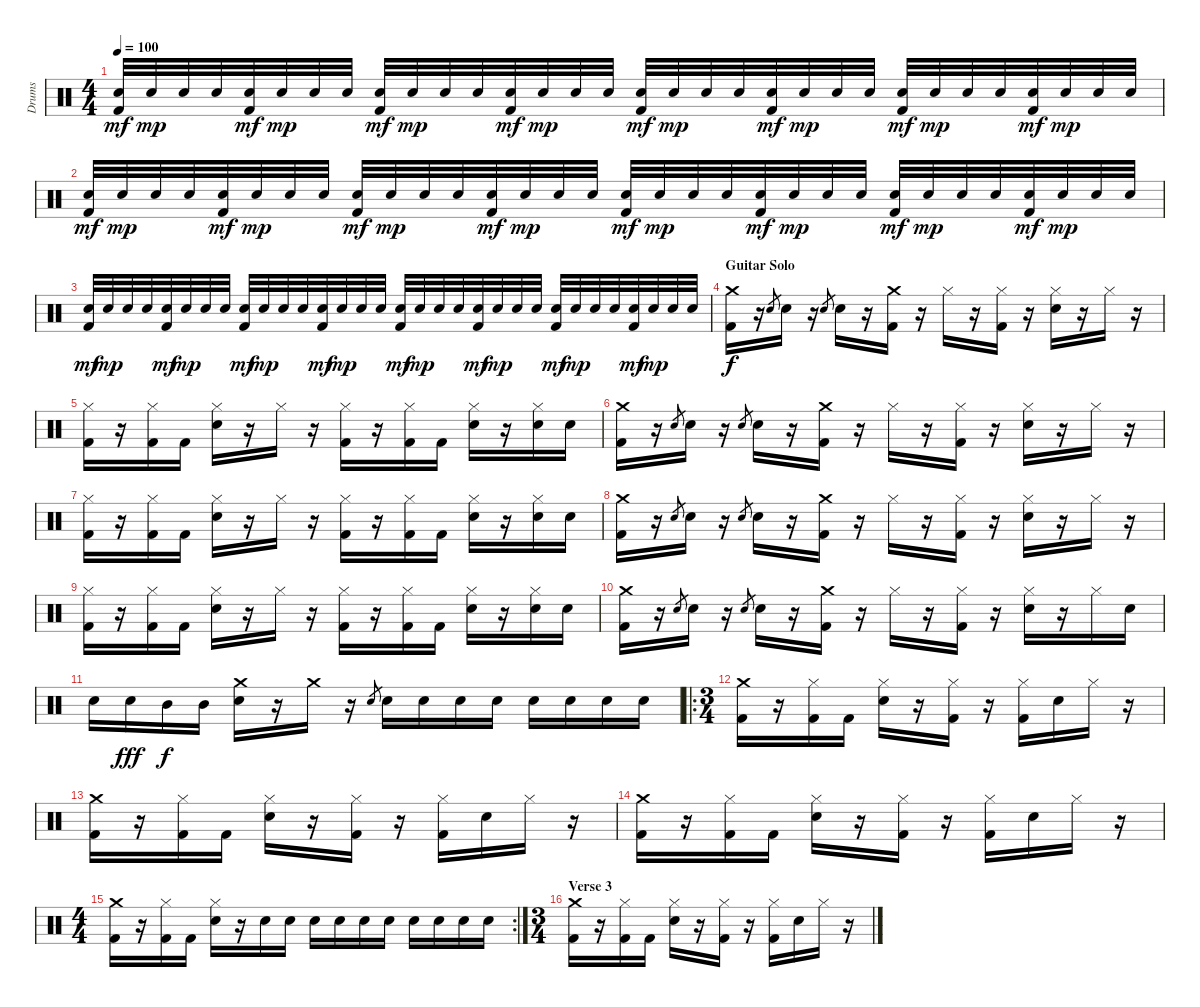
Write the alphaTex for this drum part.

\track ("Drums" "Drums") {instrument percussion}
\staff {score}
\articulation defaults
\ts (4 4)
\tempo 100
\clef neutral
\ks c
("Snare (hit) 2" "Kick (hit) 2").32{dy mf} "Snare (hit) 2".32{dy mp} "Snare (hit) 2".32 "Snare (hit) 2".32 ("Snare (hit) 2" "Kick (hit) 2").32{dy mf} "Snare (hit) 2".32{dy mp} "Snare (hit) 2".32 "Snare (hit) 2".32 ("Snare (hit) 2" "Kick (hit) 2").32{dy mf} "Snare (hit) 2".32{dy mp} "Snare (hit) 2".32 "Snare (hit) 2".32 ("Snare (hit) 2" "Kick (hit) 2").32{dy mf} "Snare (hit) 2".32{dy mp} "Snare (hit) 2".32 "Snare (hit) 2".32 ("Snare (hit) 2" "Kick (hit) 2").32{dy mf} "Snare (hit) 2".32{dy mp} "Snare (hit) 2".32 "Snare (hit) 2".32 ("Snare (hit) 2" "Kick (hit) 2").32{dy mf} "Snare (hit) 2".32{dy mp} "Snare (hit) 2".32 "Snare (hit) 2".32 ("Snare (hit) 2" "Kick (hit) 2").32{dy mf} "Snare (hit) 2".32{dy mp} "Snare (hit) 2".32 "Snare (hit) 2".32 ("Snare (hit) 2" "Kick (hit) 2").32{dy mf} "Snare (hit) 2".32{dy mp} "Snare (hit) 2".32 "Snare (hit) 2".32 |
("Snare (hit) 2" "Kick (hit) 2").32{dy mf} "Snare (hit) 2".32{dy mp} "Snare (hit) 2".32 "Snare (hit) 2".32 ("Snare (hit) 2" "Kick (hit) 2").32{dy mf} "Snare (hit) 2".32{dy mp} "Snare (hit) 2".32 "Snare (hit) 2".32 ("Snare (hit) 2" "Kick (hit) 2").32{dy mf} "Snare (hit) 2".32{dy mp} "Snare (hit) 2".32 "Snare (hit) 2".32 ("Snare (hit) 2" "Kick (hit) 2").32{dy mf} "Snare (hit) 2".32{dy mp} "Snare (hit) 2".32 "Snare (hit) 2".32 ("Snare (hit) 2" "Kick (hit) 2").32{dy mf} "Snare (hit) 2".32{dy mp} "Snare (hit) 2".32 "Snare (hit) 2".32 ("Snare (hit) 2" "Kick (hit) 2").32{dy mf} "Snare (hit) 2".32{dy mp} "Snare (hit) 2".32 "Snare (hit) 2".32 ("Snare (hit) 2" "Kick (hit) 2").32{dy mf} "Snare (hit) 2".32{dy mp} "Snare (hit) 2".32 "Snare (hit) 2".32 ("Snare (hit) 2" "Kick (hit) 2").32{dy mf} "Snare (hit) 2".32{dy mp} "Snare (hit) 2".32 "Snare (hit) 2".32 |
("Snare (hit) 2" "Kick (hit) 2").32{dy mf} "Snare (hit) 2".32{dy mp} "Snare (hit) 2".32 "Snare (hit) 2".32 ("Snare (hit) 2" "Kick (hit) 2").32{dy mf} "Snare (hit) 2".32{dy mp} "Snare (hit) 2".32 "Snare (hit) 2".32 ("Snare (hit) 2" "Kick (hit) 2").32{dy mf} "Snare (hit) 2".32{dy mp} "Snare (hit) 2".32 "Snare (hit) 2".32 ("Snare (hit) 2" "Kick (hit) 2").32{dy mf} "Snare (hit) 2".32{dy mp} "Snare (hit) 2".32 "Snare (hit) 2".32 ("Snare (hit) 2" "Kick (hit) 2").32{dy mf} "Snare (hit) 2".32{dy mp} "Snare (hit) 2".32 "Snare (hit) 2".32 ("Snare (hit) 2" "Kick (hit) 2").32{dy mf} "Snare (hit) 2".32{dy mp} "Snare (hit) 2".32 "Snare (hit) 2".32 ("Snare (hit) 2" "Kick (hit) 2").32{dy mf} "Snare (hit) 2".32{dy mp} "Snare (hit) 2".32 "Snare (hit) 2".32 ("Snare (hit) 2" "Kick (hit) 2").32{dy mf} "Snare (hit) 2".32{dy mp} "Snare (hit) 2".32 "Snare (hit) 2".32 |
\section ("" "Guitar Solo")
("Crash medium (hit)" "Kick (hit) 2").16{dy f} r.16 "Snare (hit) 2".8{gr} "Snare (hit) 2".16 r.16 "Snare (hit) 2".8{gr} "Snare (hit) 2".16 r.16 ("Crash medium (hit)" "Kick (hit) 2").16 r.16 "Hi-Hat (closed)".16 r.16 ("Hi-Hat (closed)" "Kick (hit) 2").16 r.16 ("Hi-Hat (closed)" "Snare (hit) 2").16 r.16 "Hi-Hat (closed)".16 r.16 |
("Hi-Hat (closed)" "Kick (hit) 2").16 r.16 ("Hi-Hat (closed)" "Kick (hit) 2").16 "Kick (hit) 2".16 ("Hi-Hat (closed)" "Snare (hit) 2").16 r.16 "Hi-Hat (closed)".16 r.16 ("Hi-Hat (closed)" "Kick (hit) 2").16 r.16 ("Hi-Hat (closed)" "Kick (hit) 2").16 "Kick (hit) 2".16 ("Hi-Hat (closed)" "Snare (hit) 2").16 r.16 ("Hi-Hat (closed)" "Snare (hit) 2").16 "Snare (hit) 2".16 |
("Crash medium (hit)" "Kick (hit) 2").16 r.16 "Snare (hit) 2".8{gr} "Snare (hit) 2".16 r.16 "Snare (hit) 2".8{gr} "Snare (hit) 2".16 r.16 ("Crash medium (hit)" "Kick (hit) 2").16 r.16 "Hi-Hat (closed)".16 r.16 ("Hi-Hat (closed)" "Kick (hit) 2").16 r.16 ("Hi-Hat (closed)" "Snare (hit) 2").16 r.16 "Hi-Hat (closed)".16 r.16 |
("Hi-Hat (closed)" "Kick (hit) 2").16 r.16 ("Hi-Hat (closed)" "Kick (hit) 2").16 "Kick (hit) 2".16 ("Hi-Hat (closed)" "Snare (hit) 2").16 r.16 "Hi-Hat (closed)".16 r.16 ("Hi-Hat (closed)" "Kick (hit) 2").16 r.16 ("Hi-Hat (closed)" "Kick (hit) 2").16 "Kick (hit) 2".16 ("Hi-Hat (closed)" "Snare (hit) 2").16 r.16 ("Hi-Hat (closed)" "Snare (hit) 2").16 "Snare (hit) 2".16 |
("Crash medium (hit)" "Kick (hit) 2").16 r.16 "Snare (hit) 2".8{gr} "Snare (hit) 2".16 r.16 "Snare (hit) 2".8{gr} "Snare (hit) 2".16 r.16 ("Crash medium (hit)" "Kick (hit) 2").16 r.16 "Hi-Hat (closed)".16 r.16 ("Hi-Hat (closed)" "Kick (hit) 2").16 r.16 ("Hi-Hat (closed)" "Snare (hit) 2").16 r.16 "Hi-Hat (closed)".16 r.16 |
("Hi-Hat (closed)" "Kick (hit) 2").16 r.16 ("Hi-Hat (closed)" "Kick (hit) 2").16 "Kick (hit) 2".16 ("Hi-Hat (closed)" "Snare (hit) 2").16 r.16 "Hi-Hat (closed)".16 r.16 ("Hi-Hat (closed)" "Kick (hit) 2").16 r.16 ("Hi-Hat (closed)" "Kick (hit) 2").16 "Kick (hit) 2".16 ("Hi-Hat (closed)" "Snare (hit) 2").16 r.16 ("Hi-Hat (closed)" "Snare (hit) 2").16 "Snare (hit) 2".16 |
("Crash medium (hit)" "Kick (hit) 2").16 r.16 "Snare (hit) 2".8{gr} "Snare (hit) 2".16 r.16 "Snare (hit) 2".8{gr} "Snare (hit) 2".16 r.16 ("Crash medium (hit)" "Kick (hit) 2").16 r.16 "Hi-Hat (closed)".16 r.16 ("Hi-Hat (closed)" "Kick (hit) 2").16 r.16 ("Hi-Hat (closed)" "Snare (hit) 2").16 r.16 "Hi-Hat (closed)".16 "Snare (hit) 2".16 |
"Snare (hit) 2".16 "Snare (hit) 2".16{dy fff} "Mid Tom (hit)".16{dy f} "Mid Tom (hit)".16 ("Crash medium (hit)" "Snare (hit) 2").16 r.16 "Crash medium (hit)".16 r.16 "Snare (hit) 2".8{gr} "Snare (hit) 2".16 "Snare (hit) 2".16 "Snare (hit) 2".16 "Snare (hit) 2".16 "Snare (hit) 2".16 "Snare (hit) 2".16 "Snare (hit) 2".16 "Snare (hit) 2".16 |
\ro
\ts (3 4)
("Crash medium (hit)" "Kick (hit) 2").16 r.16 ("Hi-Hat (closed)" "Kick (hit) 2").16 "Kick (hit) 2".16 ("Hi-Hat (closed)" "Snare (hit) 2").16 r.16 ("Hi-Hat (closed)" "Kick (hit) 2").16 r.16 ("Hi-Hat (closed)" "Kick (hit) 2").16 "Snare (hit) 2".16 "Hi-Hat (closed)".16 r.16 |
("Crash medium (hit)" "Kick (hit) 2").16 r.16 ("Hi-Hat (closed)" "Kick (hit) 2").16 "Kick (hit) 2".16 ("Hi-Hat (closed)" "Snare (hit) 2").16 r.16 ("Hi-Hat (closed)" "Kick (hit) 2").16 r.16 ("Hi-Hat (closed)" "Kick (hit) 2").16 "Snare (hit) 2".16 "Hi-Hat (closed)".16 r.16 |
("Crash medium (hit)" "Kick (hit) 2").16 r.16 ("Hi-Hat (closed)" "Kick (hit) 2").16 "Kick (hit) 2".16 ("Hi-Hat (closed)" "Snare (hit) 2").16 r.16 ("Hi-Hat (closed)" "Kick (hit) 2").16 r.16 ("Hi-Hat (closed)" "Kick (hit) 2").16 "Snare (hit) 2".16 "Hi-Hat (closed)".16 r.16 |
\rc 2
\ts (4 4)
("Crash medium (hit)" "Kick (hit) 2").16 r.16 ("Hi-Hat (closed)" "Kick (hit) 2").16 "Kick (hit) 2".16 ("Hi-Hat (closed)" "Snare (hit) 2").16 r.16 "Snare (hit) 2".16 "Snare (hit) 2".16 "Snare (hit) 2".16 "Snare (hit) 2".16 "Snare (hit) 2".16 "Snare (hit) 2".16 "Snare (hit) 2".16 "Snare (hit) 2".16 "Snare (hit) 2".16 "Snare (hit) 2".16 |
\ts (3 4)
\section ("" "Verse 3")
("Crash medium (hit)" "Kick (hit) 2").16 r.16 ("Hi-Hat (closed)" "Kick (hit) 2").16 "Kick (hit) 2".16 ("Hi-Hat (closed)" "Snare (hit) 2").16 r.16 ("Hi-Hat (closed)" "Kick (hit) 2").16 r.16 ("Hi-Hat (closed)" "Kick (hit) 2").16 "Snare (hit) 2".16 "Hi-Hat (closed)".16 r.16
